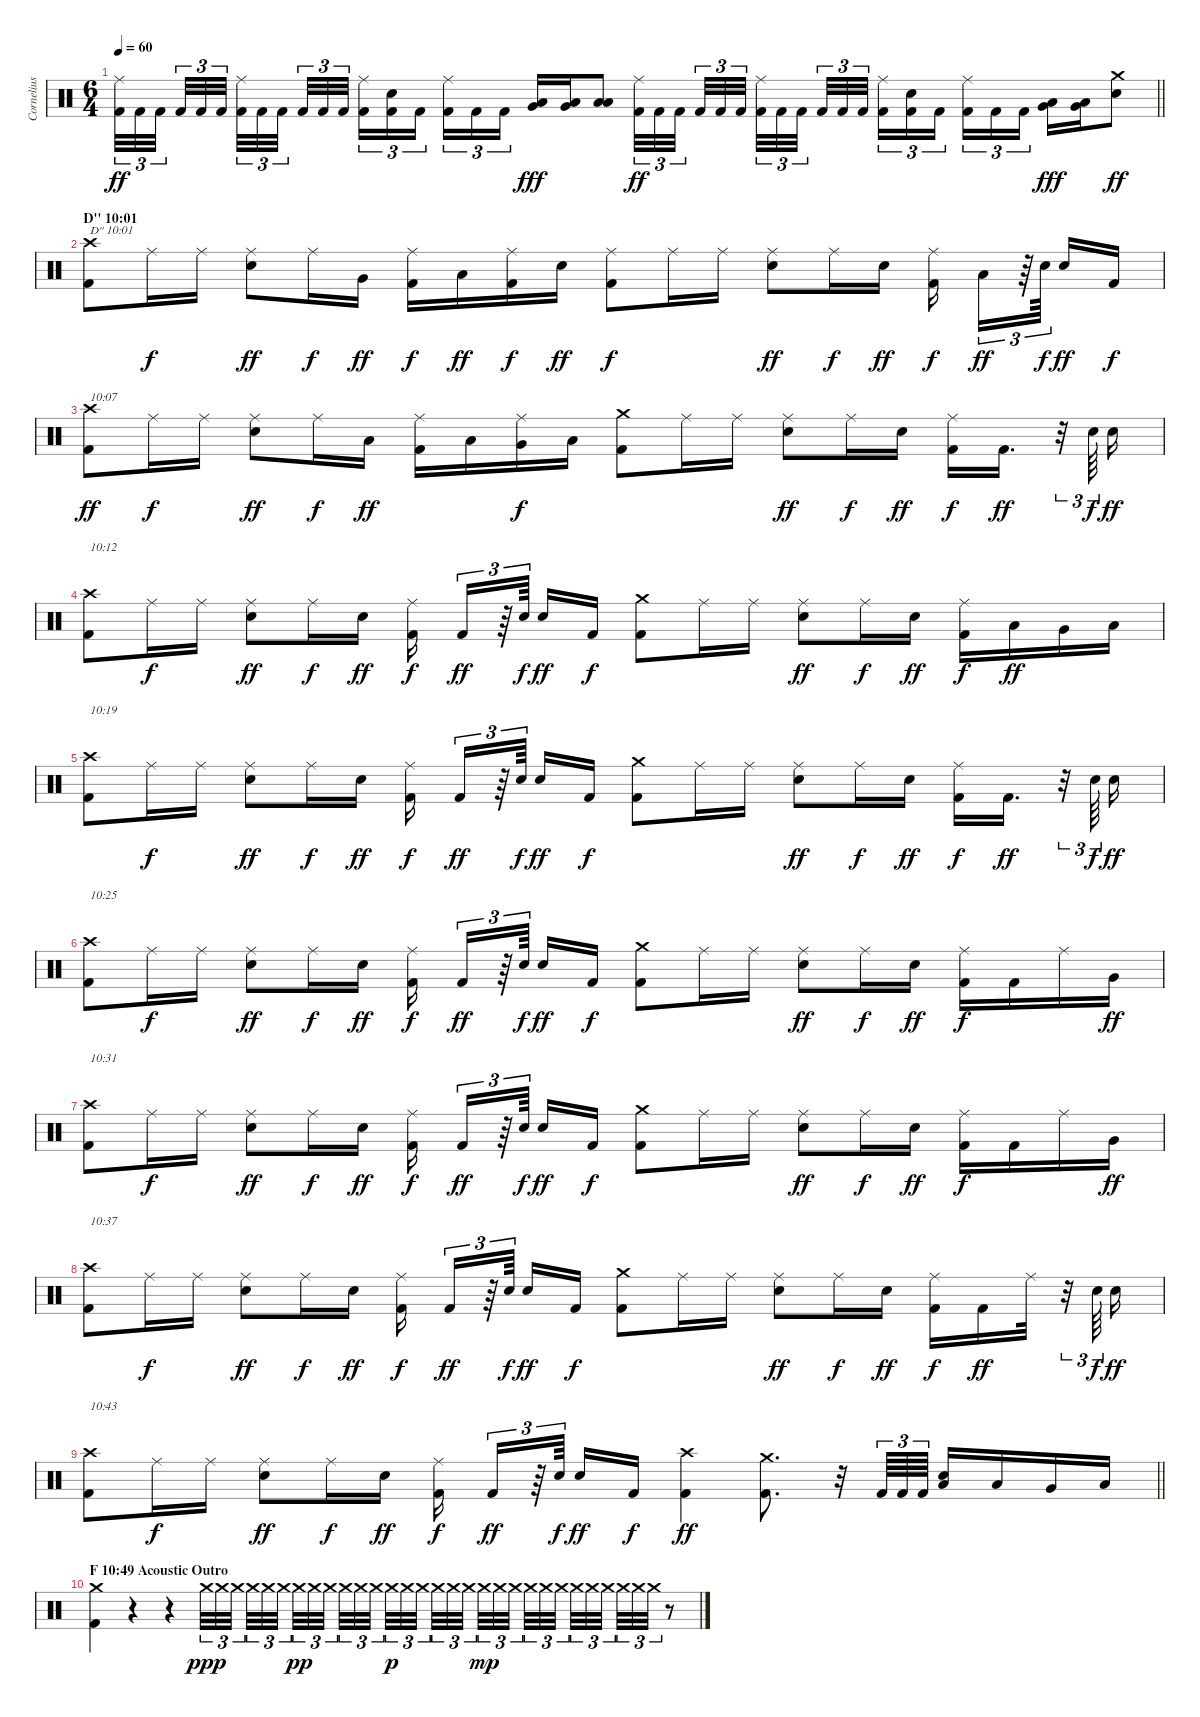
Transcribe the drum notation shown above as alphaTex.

\track ("Cornelius Althammer (Drums)" "Cornelius ") {instrument percussion}
\staff {score}
\articulation defaults
\ts (6 4)
\tempo 60
\clef neutral
\barLineRight lightlight
\ks c
("Ride (middle)" "Kick (hit) 2").32{tu (3 2) dy ff} "Kick (hit) 2".32{tu (3 2)} "Kick (hit) 2".32{tu (3 2) beam splitsecondary} "Kick (hit) 2".32{tu (3 2)} "Kick (hit) 2".32{tu (3 2)} "Kick (hit) 2".32{tu (3 2) beam splitsecondary} ("Ride (middle)" "Kick (hit) 2").32{tu (3 2)} "Kick (hit) 2".32{tu (3 2)} "Kick (hit) 2".32{tu (3 2) beam splitsecondary} "Kick (hit) 2".32{tu (3 2)} "Kick (hit) 2".32{tu (3 2)} "Kick (hit) 2".32{tu (3 2) beam splitsecondary} ("Ride (middle)" "Kick (hit) 2").16{tu (3 2)} ("Electric Snare (hit)" "Kick (hit) 2").16{tu (3 2)} "Kick (hit) 2".16{tu (3 2) beam splitsecondary} ("Ride (middle)" "Kick (hit) 2").16{tu (3 2)} "Kick (hit) 2".16{tu (3 2)} "Kick (hit) 2".16{tu (3 2) beam splitsecondary} ("Low Floor Tom (hit)" "Very Low Tom (hit)").16{dy fff} ("Low Tom (hit)" "Very Low Tom (hit)").16 ("Low Floor Tom (hit)" "Low Tom (hit)").8 ("Ride (middle)" "Kick (hit) 2").32{tu (3 2) dy ff} "Kick (hit) 2".32{tu (3 2)} "Kick (hit) 2".32{tu (3 2) beam splitsecondary} "Kick (hit) 2".32{tu (3 2)} "Kick (hit) 2".32{tu (3 2)} "Kick (hit) 2".32{tu (3 2) beam splitsecondary} ("Ride (middle)" "Kick (hit) 2").32{tu (3 2)} "Kick (hit) 2".32{tu (3 2)} "Kick (hit) 2".32{tu (3 2) beam splitsecondary} "Kick (hit) 2".32{tu (3 2)} "Kick (hit) 2".32{tu (3 2)} "Kick (hit) 2".32{tu (3 2) beam splitsecondary} ("Ride (middle)" "Kick (hit) 2").16{tu (3 2)} ("Electric Snare (hit)" "Kick (hit) 2").16{tu (3 2)} "Kick (hit) 2".16{tu (3 2) beam splitsecondary} ("Ride (middle)" "Kick (hit) 2").16{tu (3 2)} "Kick (hit) 2".16{tu (3 2)} "Kick (hit) 2".16{tu (3 2) beam splitsecondary} ("Low Floor Tom (hit)" "Very Low Tom (hit)").16{dy fff} ("Low Tom (hit)" "Very Low Tom (hit)").16 ("Crash medium (hit)" "Electric Snare (hit)").8{dy ff} |
\section ("" "D'' 10:01")
("Crash high (hit)" "Kick (hit) 2").8{txt "D'' 10:01"} "Ride (middle)".16{dy f} "Ride (middle)".16 ("Ride (middle)" "Electric Snare (hit)").8{dy ff} "Ride (middle)".16{dy f} "Very Low Tom (hit)".16{dy ff} ("Ride (middle)" "Kick (hit) 2").16{dy f} "Low Tom (hit)".16{dy ff} ("Ride (middle)" "Kick (hit) 2").16{dy f} "Electric Snare (hit)".16{dy ff} ("Ride (middle)" "Kick (hit) 2").8{dy f} "Ride (middle)".16 "Ride (middle)".16 ("Ride (middle)" "Electric Snare (hit)").8{dy ff} "Ride (middle)".16{dy f} "Electric Snare (hit)".16{dy ff} ("Ride (middle)" "Kick (hit) 2").16{dy f beam splitsecondary} "Low Tom (hit)".16{tu (3 2) dy ff} r.64{tu (3 2)} "Electric Snare (hit)".64{tu (3 2) dy f beam splitsecondary} "Electric Snare (hit)".16{dy ff} "Kick (hit) 2".16{dy f} |
("Crash high (hit)" "Kick (hit) 2").8{txt "10:07" dy ff} "Ride (middle)".16{dy f} "Ride (middle)".16 ("Ride (middle)" "Electric Snare (hit)").8{dy ff} "Ride (middle)".16{dy f} "Low Tom (hit)".16{dy ff} ("Ride (middle)" "Kick (hit) 2").16 "Low Tom (hit)".16 ("Ride (middle)" "Very Low Tom (hit)").16{dy f} "Low Tom (hit)".16 ("Crash medium (hit)" "Kick (hit) 2").8 "Ride (middle)".16 "Ride (middle)".16 ("Ride (middle)" "Electric Snare (hit)").8{dy ff} "Ride (middle)".16{dy f} "Electric Snare (hit)".16{dy ff} ("Ride (middle)" "Kick (hit) 2").16{dy f} "Kick (hit) 2".16{d dy ff} r.32{tu (3 2)} "Electric Snare (hit)".64{tu (3 2) dy f} "Electric Snare (hit)".16{dy ff} |
("Crash high (hit)" "Kick (hit) 2").8{txt "10:12"} "Ride (middle)".16{dy f} "Ride (middle)".16 ("Ride (middle)" "Electric Snare (hit)").8{dy ff} "Ride (middle)".16{dy f} "Electric Snare (hit)".16{dy ff} ("Ride (middle)" "Kick (hit) 2").16{dy f beam splitsecondary} "Kick (hit) 2".16{tu (3 2) dy ff} r.64{tu (3 2)} "Electric Snare (hit)".64{tu (3 2) dy f beam splitsecondary} "Electric Snare (hit)".16{dy ff} "Kick (hit) 2".16{dy f} ("Crash medium (hit)" "Kick (hit) 2").8 "Ride (middle)".16 "Ride (middle)".16 ("Ride (middle)" "Electric Snare (hit)").8{dy ff} "Ride (middle)".16{dy f} "Electric Snare (hit)".16{dy ff} ("Ride (middle)" "Kick (hit) 2").16{dy f} "Low Floor Tom (hit)".16{dy ff} "Very Low Tom (hit)".16 "Low Tom (hit)".16 |
("Crash high (hit)" "Kick (hit) 2").8{txt "10:19"} "Ride (middle)".16{dy f} "Ride (middle)".16 ("Ride (middle)" "Electric Snare (hit)").8{dy ff} "Ride (middle)".16{dy f} "Electric Snare (hit)".16{dy ff} ("Ride (middle)" "Kick (hit) 2").16{dy f beam splitsecondary} "Kick (hit) 2".16{tu (3 2) dy ff} r.64{tu (3 2)} "Electric Snare (hit)".64{tu (3 2) dy f beam splitsecondary} "Electric Snare (hit)".16{dy ff} "Kick (hit) 2".16{dy f} ("Crash medium (hit)" "Kick (hit) 2").8 "Ride (middle)".16 "Ride (middle)".16 ("Ride (middle)" "Electric Snare (hit)").8{dy ff} "Ride (middle)".16{dy f} "Electric Snare (hit)".16{dy ff} ("Ride (middle)" "Kick (hit) 2").16{dy f} "Kick (hit) 2".16{d dy ff} r.32{tu (3 2)} "Electric Snare (hit)".64{tu (3 2) dy f} "Electric Snare (hit)".16{dy ff} |
("Crash high (hit)" "Kick (hit) 2").8{txt "10:25"} "Ride (middle)".16{dy f} "Ride (middle)".16 ("Ride (middle)" "Electric Snare (hit)").8{dy ff} "Ride (middle)".16{dy f} "Electric Snare (hit)".16{dy ff} ("Ride (middle)" "Kick (hit) 2").16{dy f beam splitsecondary} "Kick (hit) 2".16{tu (3 2) dy ff} r.64{tu (3 2)} "Electric Snare (hit)".64{tu (3 2) dy f beam splitsecondary} "Electric Snare (hit)".16{dy ff} "Kick (hit) 2".16{dy f} ("Crash medium (hit)" "Kick (hit) 2").8 "Ride (middle)".16 "Ride (middle)".16 ("Ride (middle)" "Electric Snare (hit)").8{dy ff} "Ride (middle)".16{dy f} "Electric Snare (hit)".16{dy ff} ("Ride (middle)" "Kick (hit) 2").16{dy f} "Kick (hit) 2".16 "Ride (middle)".16 "Very Low Tom (hit)".16{dy ff} |
("Crash high (hit)" "Kick (hit) 2").8{txt "10:31"} "Ride (middle)".16{dy f} "Ride (middle)".16 ("Ride (middle)" "Electric Snare (hit)").8{dy ff} "Ride (middle)".16{dy f} "Electric Snare (hit)".16{dy ff} ("Ride (middle)" "Kick (hit) 2").16{dy f beam splitsecondary} "Kick (hit) 2".16{tu (3 2) dy ff} r.64{tu (3 2)} "Electric Snare (hit)".64{tu (3 2) dy f beam splitsecondary} "Electric Snare (hit)".16{dy ff} "Kick (hit) 2".16{dy f} ("Crash medium (hit)" "Kick (hit) 2").8 "Ride (middle)".16 "Ride (middle)".16 ("Ride (middle)" "Electric Snare (hit)").8{dy ff} "Ride (middle)".16{dy f} "Electric Snare (hit)".16{dy ff} ("Ride (middle)" "Kick (hit) 2").16{dy f} "Kick (hit) 2".16 "Ride (middle)".16 "Very Low Tom (hit)".16{dy ff} |
("Crash high (hit)" "Kick (hit) 2").8{txt "10:37"} "Ride (middle)".16{dy f} "Ride (middle)".16 ("Ride (middle)" "Electric Snare (hit)").8{dy ff} "Ride (middle)".16{dy f} "Electric Snare (hit)".16{dy ff} ("Ride (middle)" "Kick (hit) 2").16{dy f beam splitsecondary} "Kick (hit) 2".16{tu (3 2) dy ff} r.64{tu (3 2)} "Electric Snare (hit)".64{tu (3 2) dy f beam splitsecondary} "Electric Snare (hit)".16{dy ff} "Kick (hit) 2".16{dy f} ("Crash medium (hit)" "Kick (hit) 2").8 "Ride (middle)".16 "Ride (middle)".16 ("Ride (middle)" "Electric Snare (hit)").8{dy ff} "Ride (middle)".16{dy f} "Electric Snare (hit)".16{dy ff} ("Ride (middle)" "Kick (hit) 2").16{dy f} "Kick (hit) 2".16{dy ff} "Ride (middle)".32 r.32{tu (3 2)} "Electric Snare (hit)".64{tu (3 2) dy f} "Electric Snare (hit)".16{dy ff} |
\barLineRight lightlight
("Crash high (hit)" "Kick (hit) 2").8{txt "10:43"} "Ride (middle)".16{dy f} "Ride (middle)".16 ("Ride (middle)" "Electric Snare (hit)").8{dy ff} "Ride (middle)".16{dy f} "Electric Snare (hit)".16{dy ff} ("Ride (middle)" "Kick (hit) 2").16{dy f beam splitsecondary} "Kick (hit) 2".16{tu (3 2) dy ff} r.64{tu (3 2)} "Electric Snare (hit)".64{tu (3 2) dy f beam splitsecondary} "Electric Snare (hit)".16{dy ff} "Kick (hit) 2".16{dy f} ("Crash high (hit)" "Kick (hit) 2").4{dy ff} ("Crash medium (hit)" "Kick (hit) 2").8{d} r.32 "Kick (hit) 2".64{tu (3 2)} "Kick (hit) 2".64{tu (3 2)} "Kick (hit) 2".64{tu (3 2) beam splitsecondary} ("Electric Snare (hit)" "Low Floor Tom (hit)").16 "Low Tom (hit)".16 "Very Low Tom (hit)".16 "Low Floor Tom (hit)".16 |
\section ("" "F 10:49 Acoustic Outro")
("Crash medium (hit)" "Kick (hit) 2").4 r.4 r.4 "Crash medium (hit)".32{tu (3 2) dy ppp} "Crash medium (hit)".32{tu (3 2)} "Crash medium (hit)".32{tu (3 2) beam splitsecondary} "Crash medium (hit)".32{tu (3 2)} "Crash medium (hit)".32{tu (3 2)} "Crash medium (hit)".32{tu (3 2) beam splitsecondary} "Crash medium (hit)".32{tu (3 2) dy pp} "Crash medium (hit)".32{tu (3 2)} "Crash medium (hit)".32{tu (3 2) beam splitsecondary} "Crash medium (hit)".32{tu (3 2)} "Crash medium (hit)".32{tu (3 2)} "Crash medium (hit)".32{tu (3 2) beam splitsecondary} "Crash medium (hit)".32{tu (3 2) dy p} "Crash medium (hit)".32{tu (3 2)} "Crash medium (hit)".32{tu (3 2) beam splitsecondary} "Crash medium (hit)".32{tu (3 2)} "Crash medium (hit)".32{tu (3 2)} "Crash medium (hit)".32{tu (3 2) beam splitsecondary} "Crash medium (hit)".32{tu (3 2) dy mp} "Crash medium (hit)".32{tu (3 2)} "Crash medium (hit)".32{tu (3 2) beam splitsecondary} "Crash medium (hit)".32{tu (3 2)} "Crash medium (hit)".32{tu (3 2)} "Crash medium (hit)".32{tu (3 2) beam splitsecondary} "Crash medium (hit)".32{tu (3 2)} "Crash medium (hit)".32{tu (3 2)} "Crash medium (hit)".32{tu (3 2) beam splitsecondary} "Crash medium (hit)".32{tu (3 2)} "Crash medium (hit)".32{tu (3 2)} "Crash medium (hit)".32{tu (3 2)} r.8
